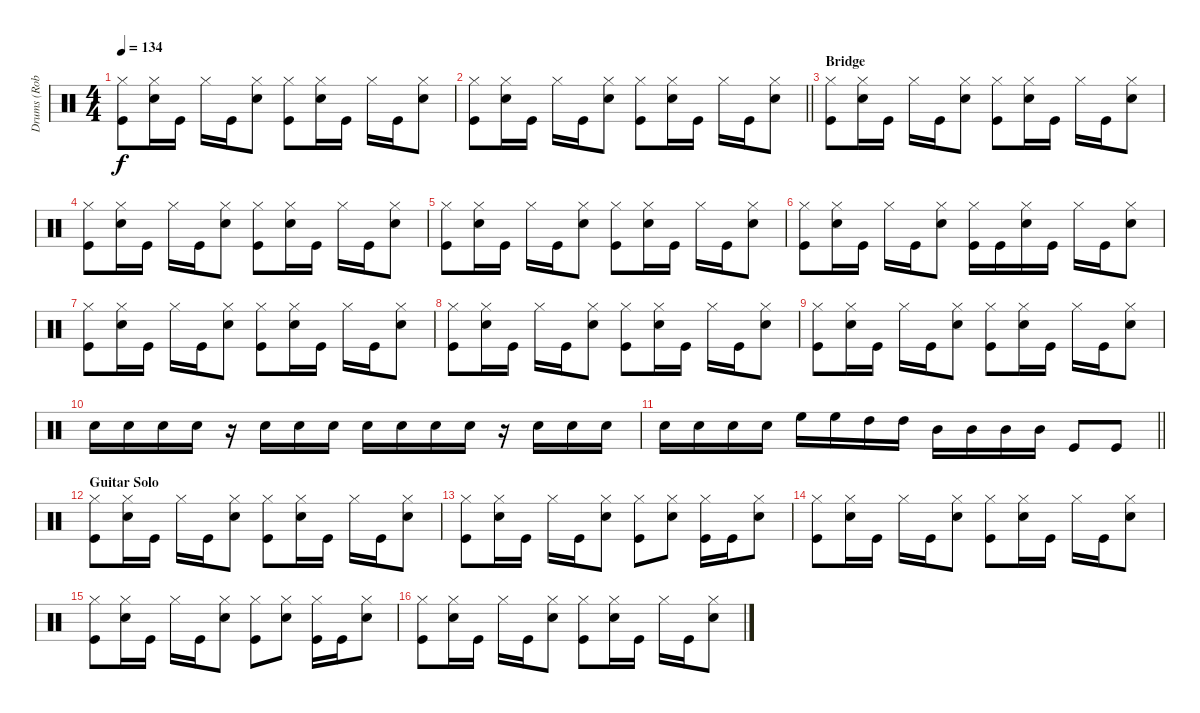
\track ("Drums (Rob Affuso)" "Drums (Rob") {instrument percussion}
\staff {score}
\articulation defaults
\ts (4 4)
\tempo 134
\clef neutral
\ks c
("Hi-Hat (closed)" "Kick (hit)").8{dy f} ("Hi-Hat (closed)" "Snare (hit) 2").16 "Kick (hit)".16 "Hi-Hat (closed)".16 "Kick (hit)".16 ("Hi-Hat (closed)" "Snare (hit) 2").8 ("Hi-Hat (closed)" "Kick (hit)").8 ("Hi-Hat (closed)" "Snare (hit) 2").16 "Kick (hit)".16 "Hi-Hat (closed)".16 "Kick (hit)".16 ("Hi-Hat (closed)" "Snare (hit) 2").8 |
\barLineRight lightlight
("Hi-Hat (closed)" "Kick (hit)").8 ("Hi-Hat (closed)" "Snare (hit) 2").16 "Kick (hit)".16 "Hi-Hat (closed)".16 "Kick (hit)".16 ("Hi-Hat (closed)" "Snare (hit) 2").8 ("Hi-Hat (closed)" "Kick (hit)").8 ("Hi-Hat (closed)" "Snare (hit) 2").16 "Kick (hit)".16 "Hi-Hat (closed)".16 "Kick (hit)".16 ("Hi-Hat (closed)" "Snare (hit) 2").8 |
\section ("" "Bridge")
("Hi-Hat (closed)" "Kick (hit)").8 ("Hi-Hat (closed)" "Snare (hit) 2").16 "Kick (hit)".16 "Hi-Hat (closed)".16 "Kick (hit)".16 ("Hi-Hat (closed)" "Snare (hit) 2").8 ("Hi-Hat (closed)" "Kick (hit)").8 ("Hi-Hat (closed)" "Snare (hit) 2").16 "Kick (hit)".16 "Hi-Hat (closed)".16 "Kick (hit)".16 ("Hi-Hat (closed)" "Snare (hit) 2").8 |
("Hi-Hat (closed)" "Kick (hit)").8 ("Hi-Hat (closed)" "Snare (hit) 2").16 "Kick (hit)".16 "Hi-Hat (closed)".16 "Kick (hit)".16 ("Hi-Hat (closed)" "Snare (hit) 2").8 ("Hi-Hat (closed)" "Kick (hit)").8 ("Hi-Hat (closed)" "Snare (hit) 2").16 "Kick (hit)".16 "Hi-Hat (closed)".16 "Kick (hit)".16 ("Hi-Hat (closed)" "Snare (hit) 2").8 |
("Hi-Hat (closed)" "Kick (hit)").8 ("Hi-Hat (closed)" "Snare (hit) 2").16 "Kick (hit)".16 "Hi-Hat (closed)".16 "Kick (hit)".16 ("Hi-Hat (closed)" "Snare (hit) 2").8 ("Hi-Hat (closed)" "Kick (hit)").8 ("Hi-Hat (closed)" "Snare (hit) 2").16 "Kick (hit)".16 "Hi-Hat (closed)".16 "Kick (hit)".16 ("Hi-Hat (closed)" "Snare (hit) 2").8 |
("Hi-Hat (closed)" "Kick (hit)").8 ("Hi-Hat (closed)" "Snare (hit) 2").16 "Kick (hit)".16 "Hi-Hat (closed)".16 "Kick (hit)".16 ("Hi-Hat (closed)" "Snare (hit) 2").8 ("Hi-Hat (closed)" "Kick (hit)").16 "Kick (hit)".16 ("Hi-Hat (closed)" "Snare (hit) 2").16 "Kick (hit)".16 "Hi-Hat (closed)".16 "Kick (hit)".16 ("Hi-Hat (closed)" "Snare (hit) 2").8 |
("Hi-Hat (closed)" "Kick (hit)").8 ("Hi-Hat (closed)" "Snare (hit) 2").16 "Kick (hit)".16 "Hi-Hat (closed)".16 "Kick (hit)".16 ("Hi-Hat (closed)" "Snare (hit) 2").8 ("Hi-Hat (closed)" "Kick (hit)").8 ("Hi-Hat (closed)" "Snare (hit) 2").16 "Kick (hit)".16 "Hi-Hat (closed)".16 "Kick (hit)".16 ("Hi-Hat (closed)" "Snare (hit) 2").8 |
("Hi-Hat (closed)" "Kick (hit)").8 ("Hi-Hat (closed)" "Snare (hit) 2").16 "Kick (hit)".16 "Hi-Hat (closed)".16 "Kick (hit)".16 ("Hi-Hat (closed)" "Snare (hit) 2").8 ("Hi-Hat (closed)" "Kick (hit)").8 ("Hi-Hat (closed)" "Snare (hit) 2").16 "Kick (hit)".16 "Hi-Hat (closed)".16 "Kick (hit)".16 ("Hi-Hat (closed)" "Snare (hit) 2").8 |
("Hi-Hat (closed)" "Kick (hit)").8 ("Hi-Hat (closed)" "Snare (hit) 2").16 "Kick (hit)".16 "Hi-Hat (closed)".16 "Kick (hit)".16 ("Hi-Hat (closed)" "Snare (hit) 2").8 ("Hi-Hat (closed)" "Kick (hit)").8 ("Hi-Hat (closed)" "Snare (hit) 2").16 "Kick (hit)".16 "Hi-Hat (closed)".16 "Kick (hit)".16 ("Hi-Hat (closed)" "Snare (hit) 2").8 |
"Snare (hit) 2".16 "Snare (hit) 2".16 "Snare (hit) 2".16 "Snare (hit) 2".16 r.16 "Snare (hit) 2".16 "Snare (hit) 2".16 "Snare (hit) 2".16 "Snare (hit) 2".16 "Snare (hit) 2".16 "Snare (hit) 2".16 "Snare (hit) 2".16 r.16 "Snare (hit) 2".16 "Snare (hit) 2".16 "Snare (hit) 2".16 |
\barLineRight lightlight "Snare (hit) 2".16 "Snare (hit) 2".16 "Snare (hit) 2".16 "Snare (hit) 2".16 "High Floor Tom (hit)".16 "High Floor Tom (hit)".16 "High Tom (hit)".16 "High Tom (hit)".16 "Mid Tom (hit)".16 "Mid Tom (hit)".16 "Mid Tom (hit)".16 "Mid Tom (hit)".16 "Kick (hit)".8 "Kick (hit)".8
|
\section ("" "Guitar Solo")
("Hi-Hat (closed)" "Kick (hit)").8 ("Hi-Hat (closed)" "Snare (hit) 2").16 "Kick (hit)".16 "Hi-Hat (closed)".16 "Kick (hit)".16 ("Hi-Hat (closed)" "Snare (hit) 2").8 ("Hi-Hat (closed)" "Kick (hit)").8 ("Hi-Hat (closed)" "Snare (hit) 2").16 "Kick (hit)".16 "Hi-Hat (closed)".16 "Kick (hit)".16 ("Hi-Hat (closed)" "Snare (hit) 2").8 |
("Hi-Hat (closed)" "Kick (hit)").8 ("Hi-Hat (closed)" "Snare (hit) 2").16 "Kick (hit)".16 "Hi-Hat (closed)".16 "Kick (hit)".16 ("Hi-Hat (closed)" "Snare (hit) 2").8 ("Hi-Hat (closed)" "Kick (hit)").8 ("Hi-Hat (closed)" "Snare (hit) 2").8 ("Hi-Hat (closed)" "Kick (hit)").16 "Kick (hit)".16 ("Hi-Hat (closed)" "Snare (hit) 2").8 |
("Hi-Hat (closed)" "Kick (hit)").8 ("Hi-Hat (closed)" "Snare (hit) 2").16 "Kick (hit)".16 "Hi-Hat (closed)".16 "Kick (hit)".16 ("Hi-Hat (closed)" "Snare (hit) 2").8 ("Hi-Hat (closed)" "Kick (hit)").8 ("Hi-Hat (closed)" "Snare (hit) 2").16 "Kick (hit)".16 "Hi-Hat (closed)".16 "Kick (hit)".16 ("Hi-Hat (closed)" "Snare (hit) 2").8 |
("Hi-Hat (closed)" "Kick (hit)").8 ("Hi-Hat (closed)" "Snare (hit) 2").16 "Kick (hit)".16 "Hi-Hat (closed)".16 "Kick (hit)".16 ("Hi-Hat (closed)" "Snare (hit) 2").8 ("Hi-Hat (closed)" "Kick (hit)").8 ("Hi-Hat (closed)" "Snare (hit) 2").8 ("Hi-Hat (closed)" "Kick (hit)").16 "Kick (hit)".16 ("Hi-Hat (closed)" "Snare (hit) 2").8 |
("Hi-Hat (closed)" "Kick (hit)").8 ("Hi-Hat (closed)" "Snare (hit) 2").16 "Kick (hit)".16 "Hi-Hat (closed)".16 "Kick (hit)".16 ("Hi-Hat (closed)" "Snare (hit) 2").8 ("Hi-Hat (closed)" "Kick (hit)").8 ("Hi-Hat (closed)" "Snare (hit) 2").16 "Kick (hit)".16 "Hi-Hat (closed)".16 "Kick (hit)".16 ("Hi-Hat (closed)" "Snare (hit) 2").8
